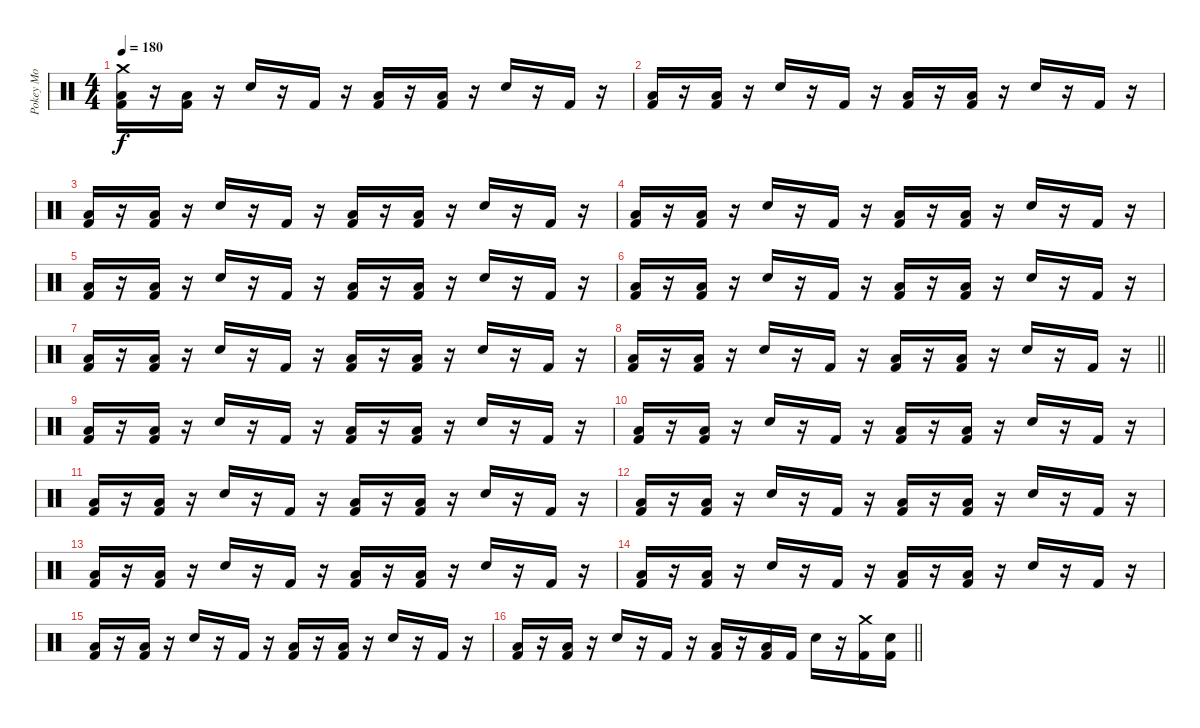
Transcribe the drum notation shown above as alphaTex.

\track ("Pokey Mo" "Pokey Mo") {instrument percussion}
\staff {score}
\articulation defaults
\ts (4 4)
\tempo 180
\clef neutral
\ks c
("Crash medium (hit)" "Low Tom (hit)" "Kick (hit) 2").16{dy f} r.16 ("Low Tom (hit)" "Kick (hit) 2").16 r.16 "Electric Snare (hit)".16 r.16 "Kick (hit) 2".16 r.16 ("Low Tom (hit)" "Kick (hit) 2").16 r.16 ("Low Tom (hit)" "Kick (hit) 2").16 r.16 "Electric Snare (hit)".16 r.16 "Kick (hit) 2".16 r.16 |
("Low Tom (hit)" "Kick (hit) 2").16 r.16 ("Low Tom (hit)" "Kick (hit) 2").16 r.16 "Electric Snare (hit)".16 r.16 "Kick (hit) 2".16 r.16 ("Low Tom (hit)" "Kick (hit) 2").16 r.16 ("Low Tom (hit)" "Kick (hit) 2").16 r.16 "Electric Snare (hit)".16 r.16 "Kick (hit) 2".16 r.16 |
("Low Tom (hit)" "Kick (hit) 2").16 r.16 ("Low Tom (hit)" "Kick (hit) 2").16 r.16 "Electric Snare (hit)".16 r.16 "Kick (hit) 2".16 r.16 ("Low Tom (hit)" "Kick (hit) 2").16 r.16 ("Low Tom (hit)" "Kick (hit) 2").16 r.16 "Electric Snare (hit)".16 r.16 "Kick (hit) 2".16 r.16 |
("Low Tom (hit)" "Kick (hit) 2").16 r.16 ("Low Tom (hit)" "Kick (hit) 2").16 r.16 "Electric Snare (hit)".16 r.16 "Kick (hit) 2".16 r.16 ("Low Tom (hit)" "Kick (hit) 2").16 r.16 ("Low Tom (hit)" "Kick (hit) 2").16 r.16 "Electric Snare (hit)".16 r.16 "Kick (hit) 2".16 r.16 |
("Low Tom (hit)" "Kick (hit) 2").16 r.16 ("Low Tom (hit)" "Kick (hit) 2").16 r.16 "Electric Snare (hit)".16 r.16 "Kick (hit) 2".16 r.16 ("Low Tom (hit)" "Kick (hit) 2").16 r.16 ("Low Tom (hit)" "Kick (hit) 2").16 r.16 "Electric Snare (hit)".16 r.16 "Kick (hit) 2".16 r.16 |
("Low Tom (hit)" "Kick (hit) 2").16 r.16 ("Low Tom (hit)" "Kick (hit) 2").16 r.16 "Electric Snare (hit)".16 r.16 "Kick (hit) 2".16 r.16 ("Low Tom (hit)" "Kick (hit) 2").16 r.16 ("Low Tom (hit)" "Kick (hit) 2").16 r.16 "Electric Snare (hit)".16 r.16 "Kick (hit) 2".16 r.16 |
("Low Tom (hit)" "Kick (hit) 2").16 r.16 ("Low Tom (hit)" "Kick (hit) 2").16 r.16 "Electric Snare (hit)".16 r.16 "Kick (hit) 2".16 r.16 ("Low Tom (hit)" "Kick (hit) 2").16 r.16 ("Low Tom (hit)" "Kick (hit) 2").16 r.16 "Electric Snare (hit)".16 r.16 "Kick (hit) 2".16 r.16 |
\barLineRight lightlight
("Low Tom (hit)" "Kick (hit) 2").16 r.16 ("Low Tom (hit)" "Kick (hit) 2").16 r.16 "Electric Snare (hit)".16 r.16 "Kick (hit) 2".16 r.16 ("Low Tom (hit)" "Kick (hit) 2").16 r.16 ("Low Tom (hit)" "Kick (hit) 2").16 r.16 "Electric Snare (hit)".16 r.16 "Kick (hit) 2".16 r.16 |
("Low Tom (hit)" "Kick (hit) 2").16 r.16 ("Low Tom (hit)" "Kick (hit) 2").16 r.16 "Electric Snare (hit)".16 r.16 "Kick (hit) 2".16 r.16 ("Low Tom (hit)" "Kick (hit) 2").16 r.16 ("Low Tom (hit)" "Kick (hit) 2").16 r.16 "Electric Snare (hit)".16 r.16 "Kick (hit) 2".16 r.16 |
("Low Tom (hit)" "Kick (hit) 2").16 r.16 ("Low Tom (hit)" "Kick (hit) 2").16 r.16 "Electric Snare (hit)".16 r.16 "Kick (hit) 2".16 r.16 ("Low Tom (hit)" "Kick (hit) 2").16 r.16 ("Low Tom (hit)" "Kick (hit) 2").16 r.16 "Electric Snare (hit)".16 r.16 "Kick (hit) 2".16 r.16 |
("Low Tom (hit)" "Kick (hit) 2").16 r.16 ("Low Tom (hit)" "Kick (hit) 2").16 r.16 "Electric Snare (hit)".16 r.16 "Kick (hit) 2".16 r.16 ("Low Tom (hit)" "Kick (hit) 2").16 r.16 ("Low Tom (hit)" "Kick (hit) 2").16 r.16 "Electric Snare (hit)".16 r.16 "Kick (hit) 2".16 r.16 |
("Low Tom (hit)" "Kick (hit) 2").16 r.16 ("Low Tom (hit)" "Kick (hit) 2").16 r.16 "Electric Snare (hit)".16 r.16 "Kick (hit) 2".16 r.16 ("Low Tom (hit)" "Kick (hit) 2").16 r.16 ("Low Tom (hit)" "Kick (hit) 2").16 r.16 "Electric Snare (hit)".16 r.16 "Kick (hit) 2".16 r.16 |
("Low Tom (hit)" "Kick (hit) 2").16 r.16 ("Low Tom (hit)" "Kick (hit) 2").16 r.16 "Electric Snare (hit)".16 r.16 "Kick (hit) 2".16 r.16 ("Low Tom (hit)" "Kick (hit) 2").16 r.16 ("Low Tom (hit)" "Kick (hit) 2").16 r.16 "Electric Snare (hit)".16 r.16 "Kick (hit) 2".16 r.16 |
("Low Tom (hit)" "Kick (hit) 2").16 r.16 ("Low Tom (hit)" "Kick (hit) 2").16 r.16 "Electric Snare (hit)".16 r.16 "Kick (hit) 2".16 r.16 ("Low Tom (hit)" "Kick (hit) 2").16 r.16 ("Low Tom (hit)" "Kick (hit) 2").16 r.16 "Electric Snare (hit)".16 r.16 "Kick (hit) 2".16 r.16 |
("Low Tom (hit)" "Kick (hit) 2").16 r.16 ("Low Tom (hit)" "Kick (hit) 2").16 r.16 "Electric Snare (hit)".16 r.16 "Kick (hit) 2".16 r.16 ("Low Tom (hit)" "Kick (hit) 2").16 r.16 ("Low Tom (hit)" "Kick (hit) 2").16 r.16 "Electric Snare (hit)".16 r.16 "Kick (hit) 2".16 r.16 |
\barLineRight lightlight
("Low Tom (hit)" "Kick (hit) 2").16 r.16 ("Low Tom (hit)" "Kick (hit) 2").16 r.16 "Electric Snare (hit)".16 r.16 "Kick (hit) 2".16 r.16 ("Low Tom (hit)" "Kick (hit) 2").16 r.16 ("Low Tom (hit)" "Kick (hit) 2").16 "Kick (hit) 2".16 "Electric Snare (hit)".16 r.16 ("Crash medium (hit)" "Kick (hit) 2").16 ("Electric Snare (hit)" "Kick (hit) 2").16
